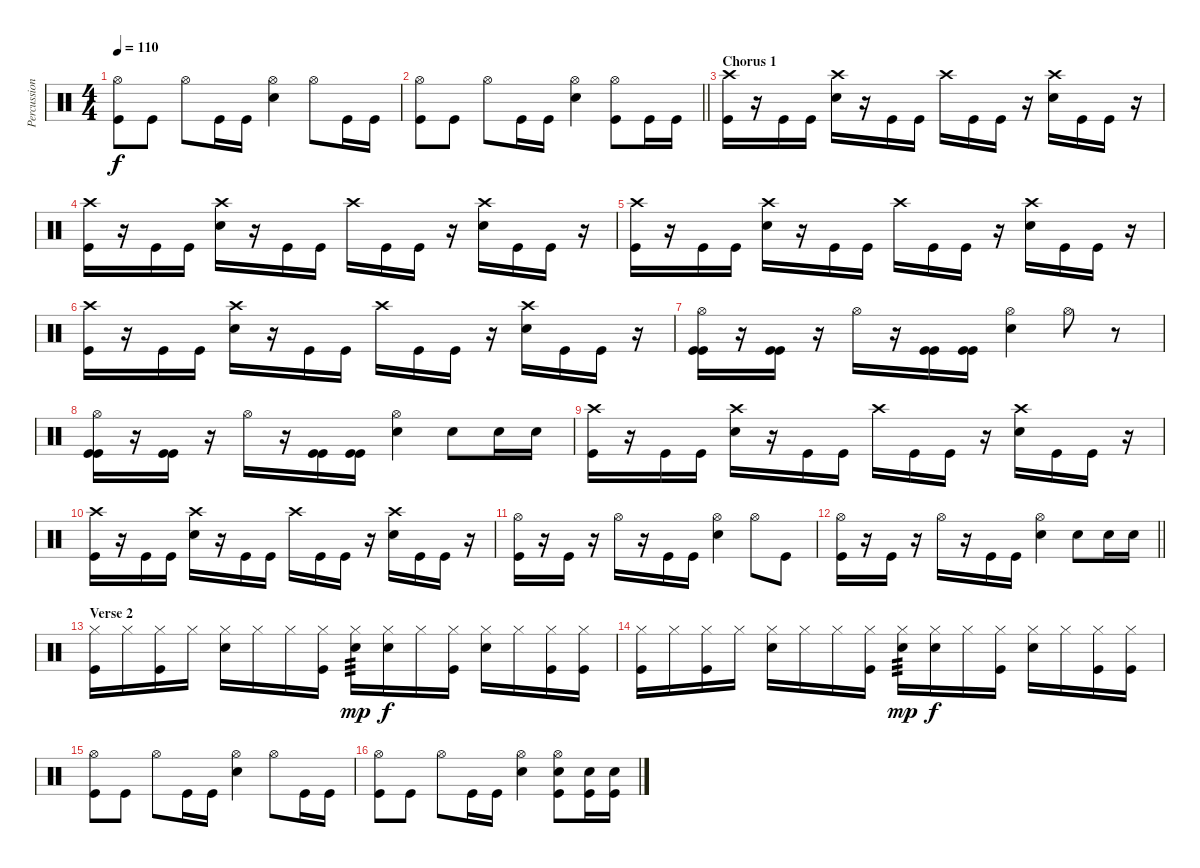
\track ("Percussion" "Percussion") {instrument percussion}
\staff {score}
\articulation defaults
\ts (4 4)
\tempo 110
\clef neutral
\ks c
("Hi-Hat (open)" "Kick (hit)").8{dy f} "Kick (hit)".8 "Hi-Hat (open)".8 "Kick (hit)".16 "Kick (hit)".16 ("Hi-Hat (open)" "Snare (hit) 2").4 "Hi-Hat (open)".8 "Kick (hit)".16 "Kick (hit)".16 |
\barLineRight lightlight
("Hi-Hat (open)" "Kick (hit)").8 "Kick (hit)".8 "Hi-Hat (open)".8 "Kick (hit)".16 "Kick (hit)".16 ("Hi-Hat (open)" "Snare (hit) 2").4 ("Hi-Hat (open)" "Kick (hit)").8 "Kick (hit)".16 "Kick (hit)".16 |
\section ("" "Chorus 1")
("Crash high (hit)" "Kick (hit)").16 r.16 "Kick (hit)".16 "Kick (hit)".16 ("Crash high (hit)" "Snare (hit) 2").16 r.16 "Kick (hit)".16 "Kick (hit)".16 "Crash high (hit)".16 "Kick (hit)".16 "Kick (hit)".16 r.16 ("Crash high (hit)" "Snare (hit) 2").16 "Kick (hit)".16 "Kick (hit)".16 r.16 |
("Crash high (hit)" "Kick (hit)").16 r.16 "Kick (hit)".16 "Kick (hit)".16 ("Crash high (hit)" "Snare (hit) 2").16 r.16 "Kick (hit)".16 "Kick (hit)".16 "Crash high (hit)".16 "Kick (hit)".16 "Kick (hit)".16 r.16 ("Crash high (hit)" "Snare (hit) 2").16 "Kick (hit)".16 "Kick (hit)".16 r.16 |
("Crash high (hit)" "Kick (hit)").16 r.16 "Kick (hit)".16 "Kick (hit)".16 ("Crash high (hit)" "Snare (hit) 2").16 r.16 "Kick (hit)".16 "Kick (hit)".16 "Crash high (hit)".16 "Kick (hit)".16 "Kick (hit)".16 r.16 ("Crash high (hit)" "Snare (hit) 2").16 "Kick (hit)".16 "Kick (hit)".16 r.16 |
("Crash high (hit)" "Kick (hit)").16 r.16 "Kick (hit)".16 "Kick (hit)".16 ("Crash high (hit)" "Snare (hit) 2").16 r.16 "Kick (hit)".16 "Kick (hit)".16 "Crash high (hit)".16 "Kick (hit)".16 "Kick (hit)".16 r.16 ("Crash high (hit)" "Snare (hit) 2").16 "Kick (hit)".16 "Kick (hit)".16 r.16 |
("Hi-Hat (open)" "Kick (hit)" "Kick (hit)").16 r.16 ("Kick (hit)" "Kick (hit)").16 r.16 "Hi-Hat (open)".16 r.16 ("Kick (hit)" "Kick (hit)").16 ("Kick (hit)" "Kick (hit)").16 ("Hi-Hat (open)" "Snare (hit) 2").4 "Hi-Hat (open)".8 r.8 |
("Hi-Hat (open)" "Kick (hit)" "Kick (hit)").16 r.16 ("Kick (hit)" "Kick (hit)").16 r.16 "Hi-Hat (open)".16 r.16 ("Kick (hit)" "Kick (hit)").16 ("Kick (hit)" "Kick (hit)").16 ("Hi-Hat (open)" "Snare (hit) 2").4 "Snare (hit) 2".8 "Snare (hit) 2".16 "Snare (hit) 2".16 |
("Crash high (hit)" "Kick (hit)").16 r.16 "Kick (hit)".16 "Kick (hit)".16 ("Crash high (hit)" "Snare (hit) 2").16 r.16 "Kick (hit)".16 "Kick (hit)".16 "Crash high (hit)".16 "Kick (hit)".16 "Kick (hit)".16 r.16 ("Crash high (hit)" "Snare (hit) 2").16 "Kick (hit)".16 "Kick (hit)".16 r.16 |
("Crash high (hit)" "Kick (hit)").16 r.16 "Kick (hit)".16 "Kick (hit)".16 ("Crash high (hit)" "Snare (hit) 2").16 r.16 "Kick (hit)".16 "Kick (hit)".16 "Crash high (hit)".16 "Kick (hit)".16 "Kick (hit)".16 r.16 ("Crash high (hit)" "Snare (hit) 2").16 "Kick (hit)".16 "Kick (hit)".16 r.16 |
("Hi-Hat (open)" "Kick (hit)").16 r.16 "Kick (hit)".16 r.16 "Hi-Hat (open)".16 r.16 "Kick (hit)".16 "Kick (hit)".16 ("Hi-Hat (open)" "Snare (hit) 2").4 "Hi-Hat (open)".8 "Kick (hit)".8 |
\barLineRight lightlight
("Hi-Hat (open)" "Kick (hit)").16 r.16 "Kick (hit)".16 r.16 "Hi-Hat (open)".16 r.16 "Kick (hit)".16 "Kick (hit)".16 ("Hi-Hat (open)" "Snare (hit) 2").4 "Snare (hit) 2".8 "Snare (hit) 2".16 "Snare (hit) 2".16 |
\section ("" "Verse 2")
("Hi-Hat (closed)" "Kick (hit)").16 "Hi-Hat (closed)".16 ("Hi-Hat (closed)" "Kick (hit)").16 "Hi-Hat (closed)".16 ("Hi-Hat (closed)" "Snare (hit) 2").16 "Hi-Hat (closed)".16 "Hi-Hat (closed)".16 ("Hi-Hat (closed)" "Kick (hit)").16 ("Hi-Hat (closed)" "Snare (hit) 2").16{tp 3 dy mp} ("Hi-Hat (closed)" "Snare (hit) 2").16{dy f} "Hi-Hat (closed)".16 ("Hi-Hat (closed)" "Kick (hit)").16 ("Hi-Hat (closed)" "Snare (hit) 2").16 "Hi-Hat (closed)".16 ("Hi-Hat (closed)" "Kick (hit)").16 ("Hi-Hat (closed)" "Kick (hit)").16 |
("Hi-Hat (closed)" "Kick (hit)").16 "Hi-Hat (closed)".16 ("Hi-Hat (closed)" "Kick (hit)").16 "Hi-Hat (closed)".16 ("Hi-Hat (closed)" "Snare (hit) 2").16 "Hi-Hat (closed)".16 "Hi-Hat (closed)".16 ("Hi-Hat (closed)" "Kick (hit)").16 ("Hi-Hat (closed)" "Snare (hit) 2").16{tp 3 dy mp} ("Hi-Hat (closed)" "Snare (hit) 2").16{dy f} "Hi-Hat (closed)".16 ("Hi-Hat (closed)" "Kick (hit)").16 ("Hi-Hat (closed)" "Snare (hit) 2").16 "Hi-Hat (closed)".16 ("Hi-Hat (closed)" "Kick (hit)").16 ("Hi-Hat (closed)" "Kick (hit)").16 |
("Hi-Hat (open)" "Kick (hit)").8 "Kick (hit)".8 "Hi-Hat (open)".8 "Kick (hit)".16 "Kick (hit)".16 ("Hi-Hat (open)" "Snare (hit) 2").4 "Hi-Hat (open)".8 "Kick (hit)".16 "Kick (hit)".16 |
("Hi-Hat (open)" "Kick (hit)").8 "Kick (hit)".8 "Hi-Hat (open)".8 "Kick (hit)".16 "Kick (hit)".16 ("Hi-Hat (open)" "Snare (hit) 2").4 ("Hi-Hat (open)" "Snare (hit) 2" "Kick (hit)").8 ("Snare (hit) 2" "Kick (hit)").16 ("Snare (hit) 2" "Kick (hit)").16
